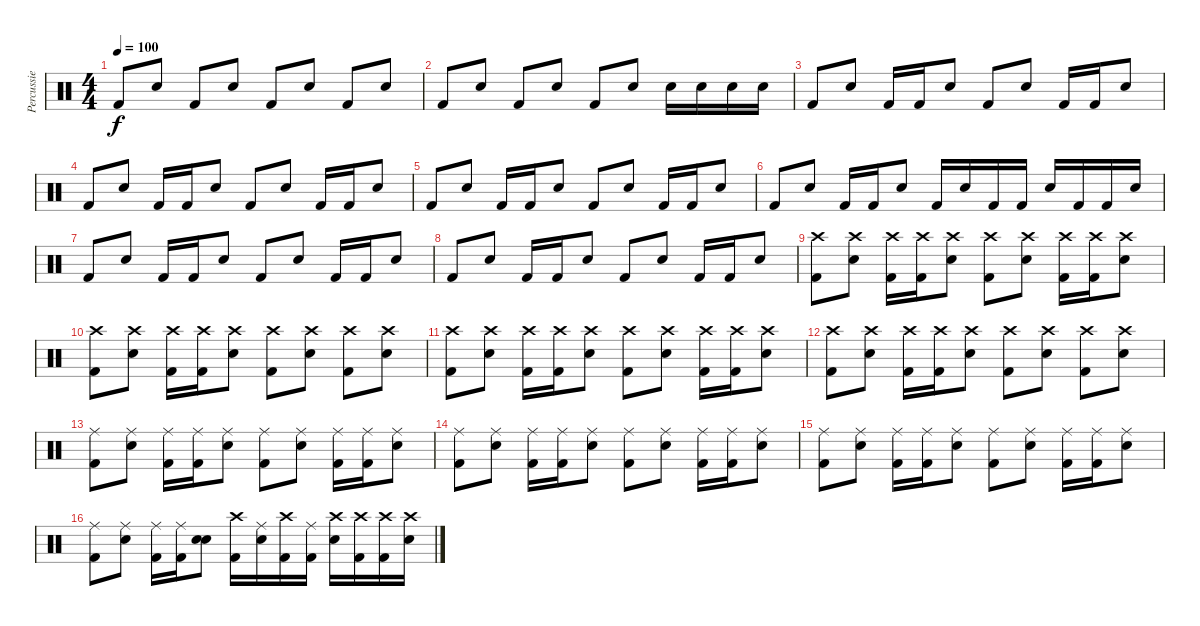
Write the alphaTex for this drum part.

\track ("Percussie" "Percussie") {instrument percussion}
\staff {score}
\articulation defaults
\ts (4 4)
\tempo 100
\clef neutral
\ks c "Kick (hit) 2".8{dy f} "Electric Snare (hit)".8 "Kick (hit) 2".8 "Electric Snare (hit)".8 "Kick (hit) 2".8 "Electric Snare (hit)".8 "Kick (hit) 2".8 "Electric Snare (hit)".8
|
"Kick (hit) 2".8 "Electric Snare (hit)".8 "Kick (hit) 2".8 "Electric Snare (hit)".8 "Kick (hit) 2".8 "Electric Snare (hit)".8 "Electric Snare (hit)".16 "Electric Snare (hit)".16 "Electric Snare (hit)".16 "Electric Snare (hit)".16 |
"Kick (hit) 2".8 "Electric Snare (hit)".8 "Kick (hit) 2".16 "Kick (hit) 2".16 "Electric Snare (hit)".8 "Kick (hit) 2".8 "Electric Snare (hit)".8 "Kick (hit) 2".16 "Kick (hit) 2".16 "Electric Snare (hit)".8 |
"Kick (hit) 2".8 "Electric Snare (hit)".8 "Kick (hit) 2".16 "Kick (hit) 2".16 "Electric Snare (hit)".8 "Kick (hit) 2".8 "Electric Snare (hit)".8 "Kick (hit) 2".16 "Kick (hit) 2".16 "Electric Snare (hit)".8 |
"Kick (hit) 2".8 "Electric Snare (hit)".8 "Kick (hit) 2".16 "Kick (hit) 2".16 "Electric Snare (hit)".8 "Kick (hit) 2".8 "Electric Snare (hit)".8 "Kick (hit) 2".16 "Kick (hit) 2".16 "Electric Snare (hit)".8 |
"Kick (hit) 2".8 "Electric Snare (hit)".8 "Kick (hit) 2".16 "Kick (hit) 2".16 "Electric Snare (hit)".8 "Kick (hit) 2".16 "Electric Snare (hit)".16 "Kick (hit) 2".16 "Kick (hit) 2".16 "Electric Snare (hit)".16 "Kick (hit) 2".16 "Kick (hit) 2".16 "Electric Snare (hit)".16 |
"Kick (hit) 2".8 "Electric Snare (hit)".8 "Kick (hit) 2".16 "Kick (hit) 2".16 "Electric Snare (hit)".8 "Kick (hit) 2".8 "Electric Snare (hit)".8 "Kick (hit) 2".16 "Kick (hit) 2".16 "Electric Snare (hit)".8 |
"Kick (hit) 2".8 "Electric Snare (hit)".8 "Kick (hit) 2".16 "Kick (hit) 2".16 "Electric Snare (hit)".8 "Kick (hit) 2".8 "Electric Snare (hit)".8 "Kick (hit) 2".16 "Kick (hit) 2".16 "Electric Snare (hit)".8 |
("Crash high (hit)" "Kick (hit) 2").8 ("Crash high (hit)" "Electric Snare (hit)").8 ("Crash high (hit)" "Kick (hit) 2").16 ("Crash high (hit)" "Kick (hit) 2").16 ("Crash high (hit)" "Electric Snare (hit)").8 ("Crash high (hit)" "Kick (hit) 2").8 ("Crash high (hit)" "Electric Snare (hit)").8 ("Crash high (hit)" "Kick (hit) 2").16 ("Crash high (hit)" "Kick (hit) 2").16 ("Crash high (hit)" "Electric Snare (hit)").8 |
("Crash high (hit)" "Kick (hit) 2").8 ("Crash high (hit)" "Electric Snare (hit)").8 ("Crash high (hit)" "Kick (hit) 2").16 ("Crash high (hit)" "Kick (hit) 2").16 ("Crash high (hit)" "Electric Snare (hit)").8 ("Crash high (hit)" "Kick (hit) 2").8 ("Crash high (hit)" "Electric Snare (hit)").8 ("Crash high (hit)" "Kick (hit) 2").8 ("Crash high (hit)" "Electric Snare (hit)").8 |
("Crash high (hit)" "Kick (hit) 2").8 ("Crash high (hit)" "Electric Snare (hit)").8 ("Crash high (hit)" "Kick (hit) 2").16 ("Crash high (hit)" "Kick (hit) 2").16 ("Crash high (hit)" "Electric Snare (hit)").8 ("Crash high (hit)" "Kick (hit) 2").8 ("Crash high (hit)" "Electric Snare (hit)").8 ("Crash high (hit)" "Kick (hit) 2").16 ("Crash high (hit)" "Kick (hit) 2").16 ("Crash high (hit)" "Electric Snare (hit)").8 |
("Crash high (hit)" "Kick (hit) 2").8 ("Crash high (hit)" "Electric Snare (hit)").8 ("Crash high (hit)" "Kick (hit) 2").16 ("Crash high (hit)" "Kick (hit) 2").16 ("Crash high (hit)" "Electric Snare (hit)").8 ("Crash high (hit)" "Kick (hit) 2").8 ("Crash high (hit)" "Electric Snare (hit)").8 ("Crash high (hit)" "Kick (hit) 2").8 ("Crash high (hit)" "Electric Snare (hit)").8 |
("Ride (middle)" "Kick (hit) 2").8 ("Ride (middle)" "Electric Snare (hit)").8 ("Ride (middle)" "Kick (hit) 2").16 ("Ride (middle)" "Kick (hit) 2").16 ("Ride (middle)" "Electric Snare (hit)").8 ("Ride (middle)" "Kick (hit) 2").8 ("Ride (middle)" "Electric Snare (hit)").8 ("Ride (middle)" "Kick (hit) 2").16 ("Ride (middle)" "Kick (hit) 2").16 ("Ride (middle)" "Electric Snare (hit)").8 |
("Ride (middle)" "Kick (hit) 2").8 ("Ride (middle)" "Electric Snare (hit)").8 ("Ride (middle)" "Kick (hit) 2").16 ("Ride (middle)" "Kick (hit) 2").16 ("Ride (middle)" "Electric Snare (hit)").8 ("Ride (middle)" "Kick (hit) 2").8 ("Ride (middle)" "Electric Snare (hit)").8 ("Ride (middle)" "Kick (hit) 2").16 ("Ride (middle)" "Kick (hit) 2").16 ("Ride (middle)" "Electric Snare (hit)").8 |
("Ride (middle)" "Kick (hit) 2").8 ("Ride (middle)" "Electric Snare (hit)").8 ("Ride (middle)" "Kick (hit) 2").16 ("Ride (middle)" "Kick (hit) 2").16 ("Ride (middle)" "Electric Snare (hit)").8 ("Ride (middle)" "Kick (hit) 2").8 ("Ride (middle)" "Electric Snare (hit)").8 ("Ride (middle)" "Kick (hit) 2").16 ("Ride (middle)" "Kick (hit) 2").16 ("Ride (middle)" "Electric Snare (hit)").8 |
("Ride (middle)" "Kick (hit) 2").8 ("Ride (middle)" "Electric Snare (hit)").8 ("Ride (middle)" "Kick (hit) 2").16 ("Ride (middle)" "Kick (hit) 2").16 ("Snare (hit)" "Electric Snare (hit)").8 ("Crash high (hit)" "Kick (hit) 2").16 ("Ride (middle)" "Electric Snare (hit)").16 ("Crash high (hit)" "Kick (hit) 2").16 ("Ride (middle)" "Kick (hit) 2").16 ("Crash high (hit)" "Electric Snare (hit)").16 ("Crash high (hit)" "Kick (hit) 2").16 ("Crash high (hit)" "Kick (hit) 2").16 ("Crash high (hit)" "Electric Snare (hit)").16
